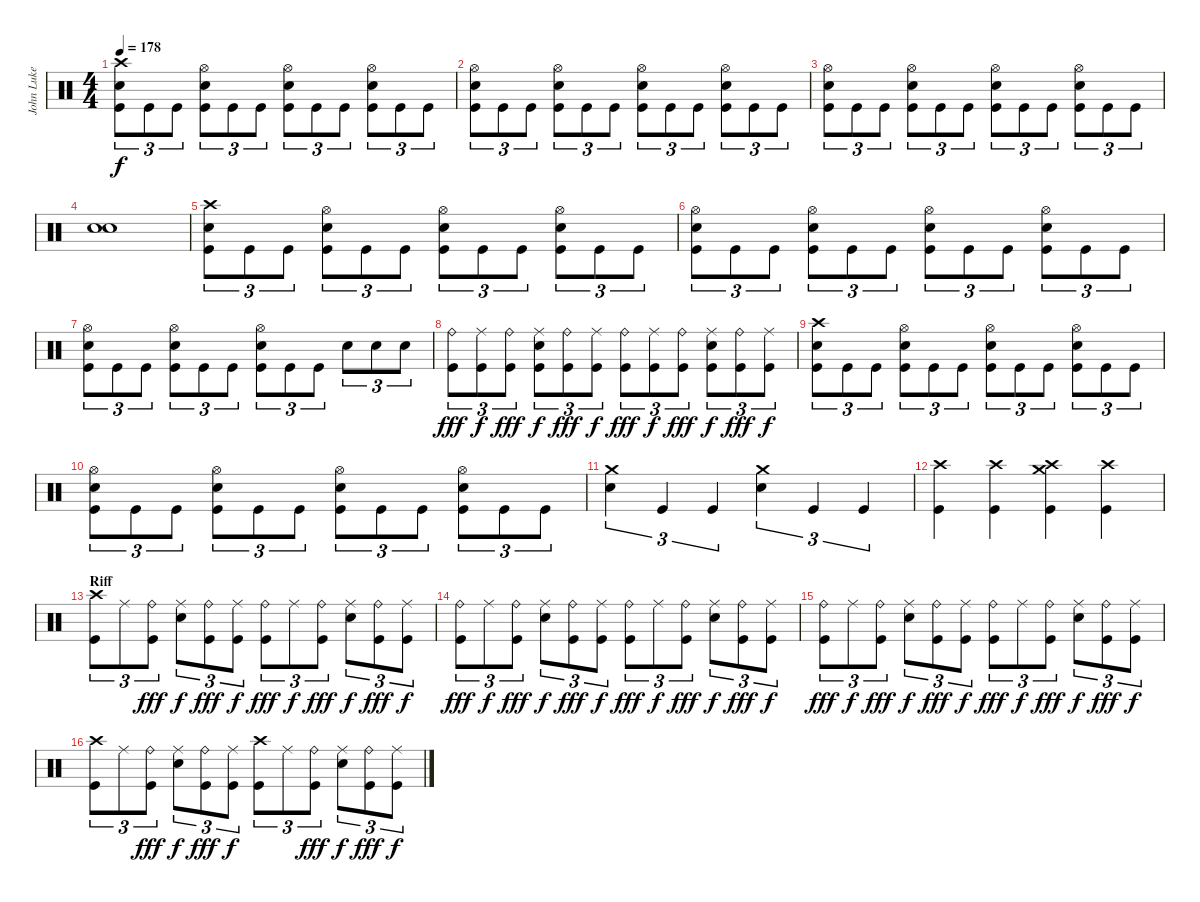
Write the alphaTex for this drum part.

\track ("John Luke (Drums)" "John Luke ") {instrument percussion}
\staff {score}
\articulation defaults
\ts (4 4)
\tempo 178
\clef neutral
\ks c
("Crash high (hit)" "Electric Snare (hit)" "Kick (hit)").8{tu (3 2) dy f} "Kick (hit)".8{tu (3 2)} "Kick (hit)".8{tu (3 2)} ("Hi-Hat (open)" "Electric Snare (hit)" "Kick (hit)").8{tu (3 2)} "Kick (hit)".8{tu (3 2)} "Kick (hit)".8{tu (3 2)} ("Hi-Hat (open)" "Electric Snare (hit)" "Kick (hit)").8{tu (3 2)} "Kick (hit)".8{tu (3 2)} "Kick (hit)".8{tu (3 2)} ("Hi-Hat (open)" "Electric Snare (hit)" "Kick (hit)").8{tu (3 2)} "Kick (hit)".8{tu (3 2)} "Kick (hit)".8{tu (3 2)} |
("Hi-Hat (open)" "Electric Snare (hit)" "Kick (hit)").8{tu (3 2)} "Kick (hit)".8{tu (3 2)} "Kick (hit)".8{tu (3 2)} ("Hi-Hat (open)" "Electric Snare (hit)" "Kick (hit)").8{tu (3 2)} "Kick (hit)".8{tu (3 2)} "Kick (hit)".8{tu (3 2)} ("Hi-Hat (open)" "Electric Snare (hit)" "Kick (hit)").8{tu (3 2)} "Kick (hit)".8{tu (3 2)} "Kick (hit)".8{tu (3 2)} ("Hi-Hat (open)" "Electric Snare (hit)" "Kick (hit)").8{tu (3 2)} "Kick (hit)".8{tu (3 2)} "Kick (hit)".8{tu (3 2)} |
("Hi-Hat (open)" "Electric Snare (hit)" "Kick (hit)").8{tu (3 2)} "Kick (hit)".8{tu (3 2)} "Kick (hit)".8{tu (3 2)} ("Hi-Hat (open)" "Electric Snare (hit)" "Kick (hit)").8{tu (3 2)} "Kick (hit)".8{tu (3 2)} "Kick (hit)".8{tu (3 2)} ("Hi-Hat (open)" "Electric Snare (hit)" "Kick (hit)").8{tu (3 2)} "Kick (hit)".8{tu (3 2)} "Kick (hit)".8{tu (3 2)} ("Hi-Hat (open)" "Electric Snare (hit)" "Kick (hit)").8{tu (3 2)} "Kick (hit)".8{tu (3 2)} "Kick (hit)".8{tu (3 2)} |
("Electric Snare (hit)" "Electric Snare (hit)").1{bu 240} |
("Crash high (hit)" "Electric Snare (hit)" "Kick (hit)").8{tu (3 2)} "Kick (hit)".8{tu (3 2)} "Kick (hit)".8{tu (3 2)} ("Hi-Hat (open)" "Electric Snare (hit)" "Kick (hit)").8{tu (3 2)} "Kick (hit)".8{tu (3 2)} "Kick (hit)".8{tu (3 2)} ("Hi-Hat (open)" "Electric Snare (hit)" "Kick (hit)").8{tu (3 2)} "Kick (hit)".8{tu (3 2)} "Kick (hit)".8{tu (3 2)} ("Hi-Hat (open)" "Electric Snare (hit)" "Kick (hit)").8{tu (3 2)} "Kick (hit)".8{tu (3 2)} "Kick (hit)".8{tu (3 2)} |
("Hi-Hat (open)" "Electric Snare (hit)" "Kick (hit)").8{tu (3 2)} "Kick (hit)".8{tu (3 2)} "Kick (hit)".8{tu (3 2)} ("Hi-Hat (open)" "Electric Snare (hit)" "Kick (hit)").8{tu (3 2)} "Kick (hit)".8{tu (3 2)} "Kick (hit)".8{tu (3 2)} ("Hi-Hat (open)" "Electric Snare (hit)" "Kick (hit)").8{tu (3 2)} "Kick (hit)".8{tu (3 2)} "Kick (hit)".8{tu (3 2)} ("Hi-Hat (open)" "Electric Snare (hit)" "Kick (hit)").8{tu (3 2)} "Kick (hit)".8{tu (3 2)} "Kick (hit)".8{tu (3 2)} |
("Hi-Hat (open)" "Electric Snare (hit)" "Kick (hit)").8{tu (3 2)} "Kick (hit)".8{tu (3 2)} "Kick (hit)".8{tu (3 2)} ("Hi-Hat (open)" "Electric Snare (hit)" "Kick (hit)").8{tu (3 2)} "Kick (hit)".8{tu (3 2)} "Kick (hit)".8{tu (3 2)} ("Hi-Hat (open)" "Electric Snare (hit)" "Kick (hit)").8{tu (3 2)} "Kick (hit)".8{tu (3 2)} "Kick (hit)".8{tu (3 2)} "Electric Snare (hit)".8{tu (3 2)} "Electric Snare (hit)".8{tu (3 2)} "Electric Snare (hit)".8{tu (3 2)} |
("Ride (bell)" "Kick (hit)").8{tu (3 2) dy fff} ("Ride (middle)" "Kick (hit)").8{tu (3 2) dy f} ("Ride (bell)" "Kick (hit)").8{tu (3 2) dy fff} ("Ride (middle)" "Electric Snare (hit)" "Kick (hit)").8{tu (3 2) dy f} ("Ride (bell)" "Kick (hit)").8{tu (3 2) dy fff} ("Ride (middle)" "Kick (hit)").8{tu (3 2) dy f} ("Ride (bell)" "Kick (hit)").8{tu (3 2) dy fff} ("Ride (middle)" "Kick (hit)").8{tu (3 2) dy f} ("Ride (bell)" "Kick (hit)").8{tu (3 2) dy fff} ("Ride (middle)" "Electric Snare (hit)" "Kick (hit)").8{tu (3 2) dy f} ("Ride (bell)" "Kick (hit)").8{tu (3 2) dy fff} ("Ride (middle)" "Kick (hit)").8{tu (3 2) dy f} |
("Crash high (hit)" "Electric Snare (hit)" "Kick (hit)").8{tu (3 2)} "Kick (hit)".8{tu (3 2)} "Kick (hit)".8{tu (3 2)} ("Hi-Hat (open)" "Electric Snare (hit)" "Kick (hit)").8{tu (3 2)} "Kick (hit)".8{tu (3 2)} "Kick (hit)".8{tu (3 2)} ("Hi-Hat (open)" "Electric Snare (hit)" "Kick (hit)").8{tu (3 2)} "Kick (hit)".8{tu (3 2)} "Kick (hit)".8{tu (3 2)} ("Hi-Hat (open)" "Electric Snare (hit)" "Kick (hit)").8{tu (3 2)} "Kick (hit)".8{tu (3 2)} "Kick (hit)".8{tu (3 2)} |
("Hi-Hat (open)" "Electric Snare (hit)" "Kick (hit)").8{tu (3 2)} "Kick (hit)".8{tu (3 2)} "Kick (hit)".8{tu (3 2)} ("Hi-Hat (open)" "Electric Snare (hit)" "Kick (hit)").8{tu (3 2)} "Kick (hit)".8{tu (3 2)} "Kick (hit)".8{tu (3 2)} ("Hi-Hat (open)" "Electric Snare (hit)" "Kick (hit)").8{tu (3 2)} "Kick (hit)".8{tu (3 2)} "Kick (hit)".8{tu (3 2)} ("Hi-Hat (open)" "Electric Snare (hit)" "Kick (hit)").8{tu (3 2)} "Kick (hit)".8{tu (3 2)} "Kick (hit)".8{tu (3 2)} |
("Crash medium (hit)" "Electric Snare (hit)").4{tu (3 2)} "Kick (hit)".4{tu (3 2)} "Kick (hit)".4{tu (3 2)} ("Crash medium (hit)" "Electric Snare (hit)").4{tu (3 2)} "Kick (hit)".4{tu (3 2)} "Kick (hit)".4{tu (3 2)} |
("Crash high (hit)" "Kick (hit)").4 ("Crash high (hit)" "Kick (hit)").4 ("Crash high (hit)" "Crash medium (hit)" "Kick (hit)").4 ("Crash high (hit)" "Kick (hit)").4 |
\section ("" "Riff")
("Crash high (hit)" "Kick (hit)").8{tu (3 2)} "Ride (middle)".8{tu (3 2)} ("Ride (bell)" "Kick (hit)").8{tu (3 2) dy fff} ("Ride (middle)" "Electric Snare (hit)").8{tu (3 2) dy f} ("Ride (bell)" "Kick (hit)").8{tu (3 2) dy fff} ("Ride (middle)" "Kick (hit)").8{tu (3 2) dy f} ("Ride (bell)" "Kick (hit)").8{tu (3 2) dy fff} "Ride (middle)".8{tu (3 2) dy f} ("Ride (bell)" "Kick (hit)").8{tu (3 2) dy fff} ("Ride (middle)" "Electric Snare (hit)").8{tu (3 2) dy f} ("Ride (bell)" "Kick (hit)").8{tu (3 2) dy fff} ("Ride (middle)" "Kick (hit)").8{tu (3 2) dy f} |
("Ride (bell)" "Kick (hit)").8{tu (3 2) dy fff} "Ride (middle)".8{tu (3 2) dy f} ("Ride (bell)" "Kick (hit)").8{tu (3 2) dy fff} ("Ride (middle)" "Electric Snare (hit)").8{tu (3 2) dy f} ("Ride (bell)" "Kick (hit)").8{tu (3 2) dy fff} ("Ride (middle)" "Kick (hit)").8{tu (3 2) dy f} ("Ride (bell)" "Kick (hit)").8{tu (3 2) dy fff} "Ride (middle)".8{tu (3 2) dy f} ("Ride (bell)" "Kick (hit)").8{tu (3 2) dy fff} ("Ride (middle)" "Electric Snare (hit)").8{tu (3 2) dy f} ("Ride (bell)" "Kick (hit)").8{tu (3 2) dy fff} ("Ride (middle)" "Kick (hit)").8{tu (3 2) dy f} |
("Ride (bell)" "Kick (hit)").8{tu (3 2) dy fff} "Ride (middle)".8{tu (3 2) dy f} ("Ride (bell)" "Kick (hit)").8{tu (3 2) dy fff} ("Ride (middle)" "Electric Snare (hit)").8{tu (3 2) dy f} ("Ride (bell)" "Kick (hit)").8{tu (3 2) dy fff} ("Ride (middle)" "Kick (hit)").8{tu (3 2) dy f} ("Ride (bell)" "Kick (hit)").8{tu (3 2) dy fff} "Ride (middle)".8{tu (3 2) dy f} ("Ride (bell)" "Kick (hit)").8{tu (3 2) dy fff} ("Ride (middle)" "Electric Snare (hit)").8{tu (3 2) dy f} ("Ride (bell)" "Kick (hit)").8{tu (3 2) dy fff} ("Ride (middle)" "Kick (hit)").8{tu (3 2) dy f} |
("Crash high (hit)" "Kick (hit)").8{tu (3 2)} "Ride (middle)".8{tu (3 2)} ("Ride (bell)" "Kick (hit)").8{tu (3 2) dy fff} ("Ride (middle)" "Electric Snare (hit)").8{tu (3 2) dy f} ("Ride (bell)" "Kick (hit)").8{tu (3 2) dy fff} ("Ride (middle)" "Kick (hit)").8{tu (3 2) dy f} ("Crash high (hit)" "Kick (hit)").8{tu (3 2)} "Ride (middle)".8{tu (3 2)} ("Ride (bell)" "Kick (hit)").8{tu (3 2) dy fff} ("Ride (middle)" "Electric Snare (hit)").8{tu (3 2) dy f} ("Ride (bell)" "Kick (hit)").8{tu (3 2) dy fff} ("Ride (middle)" "Kick (hit)").8{tu (3 2) dy f}
